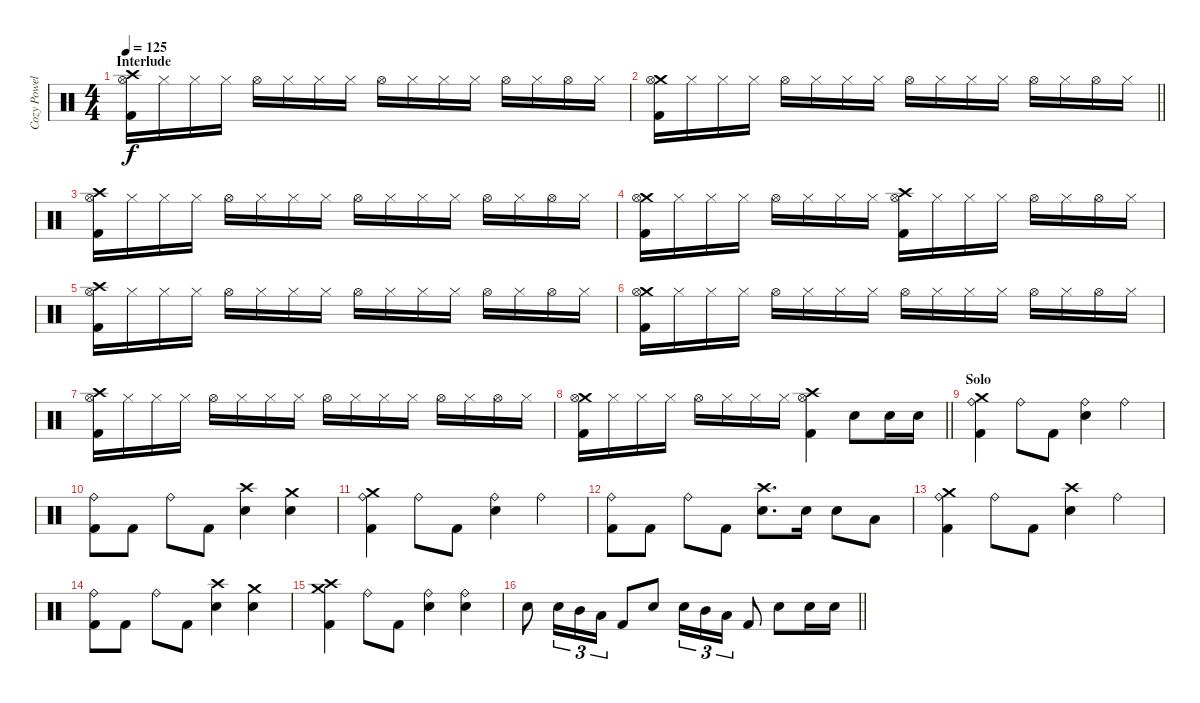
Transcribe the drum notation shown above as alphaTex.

\track ("Cozy Powell " "Cozy Powel") {instrument percussion}
\staff {score}
\articulation defaults
\ts (4 4)
\section ("" "Interlude")
\tempo 125
\clef neutral
\ks c
("Crash high (hit)" "Hi-Hat (open)" "Kick (hit) 2").16{dy f} "Hi-Hat (closed)".16 "Hi-Hat (closed)".16 "Hi-Hat (closed)".16 "Hi-Hat (open)".16 "Hi-Hat (closed)".16 "Hi-Hat (closed)".16 "Hi-Hat (closed)".16 "Hi-Hat (open)".16 "Hi-Hat (closed)".16 "Hi-Hat (closed)".16 "Hi-Hat (closed)".16 "Hi-Hat (open)".16 "Hi-Hat (closed)".16 "Hi-Hat (open)".16 "Hi-Hat (closed)".16 |
\barLineRight lightlight
("Crash medium (hit)" "Hi-Hat (open)" "Kick (hit) 2").16 "Hi-Hat (closed)".16 "Hi-Hat (closed)".16 "Hi-Hat (closed)".16 "Hi-Hat (open)".16 "Hi-Hat (closed)".16 "Hi-Hat (closed)".16 "Hi-Hat (closed)".16 "Hi-Hat (open)".16 "Hi-Hat (closed)".16 "Hi-Hat (closed)".16 "Hi-Hat (closed)".16 "Hi-Hat (open)".16 "Hi-Hat (closed)".16 "Hi-Hat (open)".16 "Hi-Hat (closed)".16 |
("Crash high (hit)" "Hi-Hat (open)" "Kick (hit) 2").16 "Hi-Hat (closed)".16 "Hi-Hat (closed)".16 "Hi-Hat (closed)".16 "Hi-Hat (open)".16 "Hi-Hat (closed)".16 "Hi-Hat (closed)".16 "Hi-Hat (closed)".16 "Hi-Hat (open)".16 "Hi-Hat (closed)".16 "Hi-Hat (closed)".16 "Hi-Hat (closed)".16 "Hi-Hat (open)".16 "Hi-Hat (closed)".16 "Hi-Hat (open)".16 "Hi-Hat (closed)".16 |
("Crash medium (hit)" "Hi-Hat (open)" "Kick (hit) 2").16 "Hi-Hat (closed)".16 "Hi-Hat (closed)".16 "Hi-Hat (closed)".16 "Hi-Hat (open)".16 "Hi-Hat (closed)".16 "Hi-Hat (closed)".16 "Hi-Hat (closed)".16 ("Crash high (hit)" "Hi-Hat (open)" "Kick (hit) 2").16 "Hi-Hat (closed)".16 "Hi-Hat (closed)".16 "Hi-Hat (closed)".16 "Hi-Hat (open)".16 "Hi-Hat (closed)".16 "Hi-Hat (open)".16 "Hi-Hat (closed)".16 |
("Crash high (hit)" "Hi-Hat (open)" "Kick (hit) 2").16 "Hi-Hat (closed)".16 "Hi-Hat (closed)".16 "Hi-Hat (closed)".16 "Hi-Hat (open)".16 "Hi-Hat (closed)".16 "Hi-Hat (closed)".16 "Hi-Hat (closed)".16 "Hi-Hat (open)".16 "Hi-Hat (closed)".16 "Hi-Hat (closed)".16 "Hi-Hat (closed)".16 "Hi-Hat (open)".16 "Hi-Hat (closed)".16 "Hi-Hat (open)".16 "Hi-Hat (closed)".16 |
("Crash medium (hit)" "Hi-Hat (open)" "Kick (hit) 2").16 "Hi-Hat (closed)".16 "Hi-Hat (closed)".16 "Hi-Hat (closed)".16 "Hi-Hat (open)".16 "Hi-Hat (closed)".16 "Hi-Hat (closed)".16 "Hi-Hat (closed)".16 "Hi-Hat (open)".16 "Hi-Hat (closed)".16 "Hi-Hat (closed)".16 "Hi-Hat (closed)".16 "Hi-Hat (open)".16 "Hi-Hat (closed)".16 "Hi-Hat (open)".16 "Hi-Hat (closed)".16 |
("Crash high (hit)" "Hi-Hat (open)" "Kick (hit) 2").16 "Hi-Hat (closed)".16 "Hi-Hat (closed)".16 "Hi-Hat (closed)".16 "Hi-Hat (open)".16 "Hi-Hat (closed)".16 "Hi-Hat (closed)".16 "Hi-Hat (closed)".16 "Hi-Hat (open)".16 "Hi-Hat (closed)".16 "Hi-Hat (closed)".16 "Hi-Hat (closed)".16 "Hi-Hat (open)".16 "Hi-Hat (closed)".16 "Hi-Hat (open)".16 "Hi-Hat (closed)".16 |
\barLineRight lightlight
("Crash medium (hit)" "Hi-Hat (open)" "Kick (hit) 2").16 "Hi-Hat (closed)".16 "Hi-Hat (closed)".16 "Hi-Hat (closed)".16 "Hi-Hat (open)".16 "Hi-Hat (closed)".16 "Hi-Hat (closed)".16 "Hi-Hat (closed)".16 ("Crash high (hit)" "Hi-Hat (open)" "Kick (hit) 2").4 "Snare (hit) 2".8 "Snare (hit) 2".16 "Snare (hit) 2".16 |
\section ("" "Solo")
("Crash medium (hit)" "Ride (bell)" "Kick (hit) 2").4 "Ride (bell)".8 "Kick (hit) 2".8 ("Ride (bell)" "Snare (hit) 2").4 "Ride (bell)".4 |
("Ride (bell)" "Kick (hit) 2").8 "Kick (hit) 2".8 "Ride (bell)".8 "Kick (hit) 2".8 ("Crash high (hit)" "Snare (hit) 2").4 ("Crash medium (hit)" "Snare (hit) 2").4 |
("Crash medium (hit)" "Ride (bell)" "Kick (hit) 2").4 "Ride (bell)".8 "Kick (hit) 2".8 ("Ride (bell)" "Snare (hit) 2").4 "Ride (bell)".4 |
("Ride (bell)" "Kick (hit) 2").8 "Kick (hit) 2".8 "Ride (bell)".8 "Kick (hit) 2".8 ("Crash high (hit)" "Snare (hit) 2").8{d} "Snare (hit) 2".16 "Snare (hit) 2".8 "Low Tom (hit)".8 |
("Crash medium (hit)" "Ride (bell)" "Kick (hit) 2").4 "Ride (bell)".8 "Kick (hit) 2".8 ("Crash high (hit)" "Snare (hit) 2").4 "Ride (bell)".4 |
("Ride (bell)" "Kick (hit) 2").8 "Kick (hit) 2".8 "Ride (bell)".8 "Kick (hit) 2".8 ("Crash high (hit)" "Snare (hit) 2").4 ("Crash medium (hit)" "Snare (hit) 2").4 |
("Crash medium (hit)" "Crash high (hit)" "Kick (hit) 2").4 "Ride (bell)".8 "Kick (hit) 2".8 ("Ride (bell)" "Snare (hit) 2").4 ("Ride (bell)" "Snare (hit) 2").4 |
\barLineRight lightlight "Snare (hit) 2".8 "Snare (hit) 2".16{tu (3 2)} "Mid Tom (hit)".16{tu (3 2)} "Low Tom (hit)".16{tu (3 2)} "Kick (hit) 2".8 "Snare (hit) 2".8 "Snare (hit) 2".16{tu (3 2)} "Mid Tom (hit)".16{tu (3 2)} "Low Tom (hit)".16{tu (3 2)} "Kick (hit) 2".8 "Snare (hit) 2".8 "Snare (hit) 2".16 "Snare (hit) 2".16
